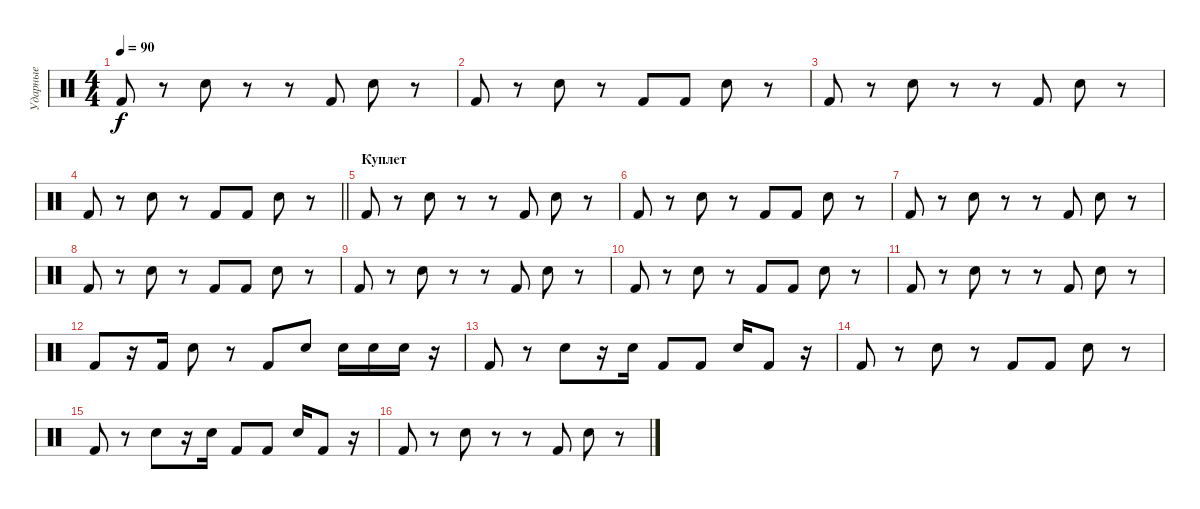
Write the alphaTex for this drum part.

\track ("Ударные" "Ударные") {instrument percussion}
\staff {score}
\articulation defaults
\ts (4 4)
\tempo 90
\clef neutral
\ks c "Kick (hit) 2".8{dy f}
r.8 "Snare (hit) 2".8 r.8 r.8 "Kick (hit) 2".8 "Snare (hit) 2".8 r.8 |
"Kick (hit) 2".8 r.8 "Snare (hit) 2".8 r.8 "Kick (hit) 2".8 "Kick (hit) 2".8 "Snare (hit) 2".8 r.8 |
"Kick (hit) 2".8 r.8 "Snare (hit) 2".8 r.8 r.8 "Kick (hit) 2".8 "Snare (hit) 2".8 r.8 |
\barLineRight lightlight "Kick (hit) 2".8
r.8 "Snare (hit) 2".8 r.8 "Kick (hit) 2".8 "Kick (hit) 2".8 "Snare (hit) 2".8 r.8 |
\section ("" "Куплет")
"Kick (hit) 2".8 r.8 "Snare (hit) 2".8 r.8 r.8 "Kick (hit) 2".8 "Snare (hit) 2".8 r.8 |
"Kick (hit) 2".8 r.8 "Snare (hit) 2".8 r.8 "Kick (hit) 2".8 "Kick (hit) 2".8 "Snare (hit) 2".8 r.8 |
"Kick (hit) 2".8 r.8 "Snare (hit) 2".8 r.8 r.8 "Kick (hit) 2".8 "Snare (hit) 2".8 r.8 |
"Kick (hit) 2".8 r.8 "Snare (hit) 2".8 r.8 "Kick (hit) 2".8 "Kick (hit) 2".8 "Snare (hit) 2".8 r.8 |
"Kick (hit) 2".8 r.8 "Snare (hit) 2".8 r.8 r.8 "Kick (hit) 2".8 "Snare (hit) 2".8 r.8 |
"Kick (hit) 2".8 r.8 "Snare (hit) 2".8 r.8 "Kick (hit) 2".8 "Kick (hit) 2".8 "Snare (hit) 2".8 r.8 |
"Kick (hit) 2".8 r.8 "Snare (hit) 2".8 r.8 r.8 "Kick (hit) 2".8 "Snare (hit) 2".8 r.8 |
"Kick (hit) 2".8 r.16 "Kick (hit) 2".16 "Snare (hit) 2".8 r.8 "Kick (hit) 2".8 "Snare (hit) 2".8 "Snare (hit) 2".16 "Snare (hit) 2".16 "Snare (hit) 2".16 r.16 |
"Kick (hit) 2".8 r.8 "Snare (hit) 2".8 r.16 "Snare (hit) 2".16 "Kick (hit) 2".8 "Kick (hit) 2".8 "Snare (hit) 2".16 "Kick (hit) 2".8 r.16 |
"Kick (hit) 2".8 r.8 "Snare (hit) 2".8 r.8 "Kick (hit) 2".8 "Kick (hit) 2".8 "Snare (hit) 2".8 r.8 |
"Kick (hit) 2".8 r.8 "Snare (hit) 2".8 r.16 "Snare (hit) 2".16 "Kick (hit) 2".8 "Kick (hit) 2".8 "Snare (hit) 2".16 "Kick (hit) 2".8 r.16 |
"Kick (hit) 2".8 r.8 "Snare (hit) 2".8 r.8 r.8 "Kick (hit) 2".8 "Snare (hit) 2".8 r.8
